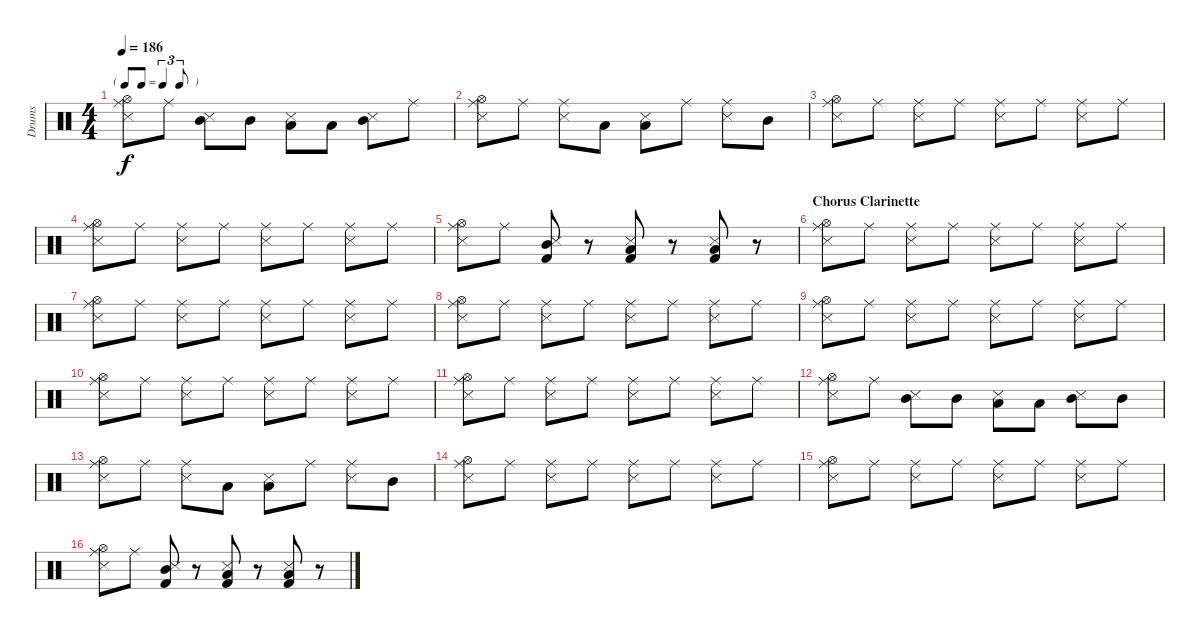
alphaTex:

\track ("Drums" "Drums") {instrument percussion}
\staff {score}
\articulation defaults
\ts (4 4)
\tf triplet8th
\tempo 186
\clef neutral
\ks c
("Hi-Hat (open)" "Ride (middle)" "Snare (side stick) 3").8{dy f} "Ride (middle)".8 ("Mid Tom (hit)" "Snare (side stick) 3").8 "Mid Tom (hit)".8 ("Low Tom (hit)" "Snare (side stick) 3").8 "Low Tom (hit)".8 ("Mid Tom (hit)" "Snare (side stick) 3").8 "Ride (middle)".8 |
("Hi-Hat (open)" "Ride (middle)" "Snare (side stick) 3").8 "Ride (middle)".8 ("Ride (middle)" "Snare (side stick) 3").8 "Low Tom (hit)".8 ("Low Tom (hit)" "Snare (side stick) 3").8 "Ride (middle)".8 ("Ride (middle)" "Snare (side stick) 3").8 "Mid Tom (hit)".8 |
("Hi-Hat (open)" "Ride (middle)" "Snare (side stick) 3").8 "Ride (middle)".8 ("Ride (middle)" "Snare (side stick) 3").8 "Ride (middle)".8 ("Ride (middle)" "Snare (side stick) 3").8 "Ride (middle)".8 ("Ride (middle)" "Snare (side stick) 3").8 "Ride (middle)".8 |
("Hi-Hat (open)" "Ride (middle)" "Snare (side stick) 3").8 "Ride (middle)".8 ("Ride (middle)" "Snare (side stick) 3").8 "Ride (middle)".8 ("Ride (middle)" "Snare (side stick) 3").8 "Ride (middle)".8 ("Ride (middle)" "Snare (side stick) 3").8 "Ride (middle)".8 |
("Hi-Hat (open)" "Ride (middle)" "Snare (side stick) 3").8 "Ride (middle)".8 ("Mid Tom (hit)" "Snare (side stick) 3" "Kick (hit) 2").8 r.8 ("Low Tom (hit)" "Snare (side stick) 3" "Kick (hit) 2").8 r.8 ("Low Tom (hit)" "Snare (side stick) 3" "Kick (hit) 2").8 r.8 |
\section ("" "Chorus Clarinette")
("Hi-Hat (open)" "Ride (middle)" "Snare (side stick) 3").8 "Ride (middle)".8 ("Ride (middle)" "Snare (side stick) 3").8 "Ride (middle)".8 ("Ride (middle)" "Snare (side stick) 3").8 "Ride (middle)".8 ("Ride (middle)" "Snare (side stick) 3").8 "Ride (middle)".8 |
("Hi-Hat (open)" "Ride (middle)" "Snare (side stick) 3").8 "Ride (middle)".8 ("Ride (middle)" "Snare (side stick) 3").8 "Ride (middle)".8 ("Ride (middle)" "Snare (side stick) 3").8 "Ride (middle)".8 ("Ride (middle)" "Snare (side stick) 3").8 "Ride (middle)".8 |
("Hi-Hat (open)" "Ride (middle)" "Snare (side stick) 3").8 "Ride (middle)".8 ("Ride (middle)" "Snare (side stick) 3").8 "Ride (middle)".8 ("Ride (middle)" "Snare (side stick) 3").8 "Ride (middle)".8 ("Ride (middle)" "Snare (side stick) 3").8 "Ride (middle)".8 |
("Hi-Hat (open)" "Ride (middle)" "Snare (side stick) 3").8 "Ride (middle)".8 ("Ride (middle)" "Snare (side stick) 3").8 "Ride (middle)".8 ("Ride (middle)" "Snare (side stick) 3").8 "Ride (middle)".8 ("Ride (middle)" "Snare (side stick) 3").8 "Ride (middle)".8 |
("Hi-Hat (open)" "Ride (middle)" "Snare (side stick) 3").8 "Ride (middle)".8 ("Ride (middle)" "Snare (side stick) 3").8 "Ride (middle)".8 ("Ride (middle)" "Snare (side stick) 3").8 "Ride (middle)".8 ("Ride (middle)" "Snare (side stick) 3").8 "Ride (middle)".8 |
("Hi-Hat (open)" "Ride (middle)" "Snare (side stick) 3").8 "Ride (middle)".8 ("Ride (middle)" "Snare (side stick) 3").8 "Ride (middle)".8 ("Ride (middle)" "Snare (side stick) 3").8 "Ride (middle)".8 ("Ride (middle)" "Snare (side stick) 3").8 "Ride (middle)".8 |
("Hi-Hat (open)" "Ride (middle)" "Snare (side stick) 3").8 "Ride (middle)".8 ("Mid Tom (hit)" "Snare (side stick) 3").8 "Mid Tom (hit)".8 ("Low Tom (hit)" "Snare (side stick) 3").8 "Low Tom (hit)".8 ("Mid Tom (hit)" "Snare (side stick) 3").8 "Mid Tom (hit)".8 |
("Hi-Hat (open)" "Ride (middle)" "Snare (side stick) 3").8 "Ride (middle)".8 ("Ride (middle)" "Snare (side stick) 3").8 "Low Tom (hit)".8 ("Low Tom (hit)" "Snare (side stick) 3").8 "Ride (middle)".8 ("Ride (middle)" "Snare (side stick) 3").8 "Mid Tom (hit)".8 |
("Hi-Hat (open)" "Ride (middle)" "Snare (side stick) 3").8 "Ride (middle)".8 ("Ride (middle)" "Snare (side stick) 3").8 "Ride (middle)".8 ("Ride (middle)" "Snare (side stick) 3").8 "Ride (middle)".8 ("Ride (middle)" "Snare (side stick) 3").8 "Ride (middle)".8 |
("Hi-Hat (open)" "Ride (middle)" "Snare (side stick) 3").8 "Ride (middle)".8 ("Ride (middle)" "Snare (side stick) 3").8 "Ride (middle)".8 ("Ride (middle)" "Snare (side stick) 3").8 "Ride (middle)".8 ("Ride (middle)" "Snare (side stick) 3").8 "Ride (middle)".8 |
("Hi-Hat (open)" "Ride (middle)" "Snare (side stick) 3").8 "Ride (middle)".8 ("Mid Tom (hit)" "Snare (side stick) 3" "Kick (hit) 2").8 r.8 ("Low Tom (hit)" "Snare (side stick) 3" "Kick (hit) 2").8 r.8 ("Low Tom (hit)" "Snare (side stick) 3" "Kick (hit) 2").8 r.8
